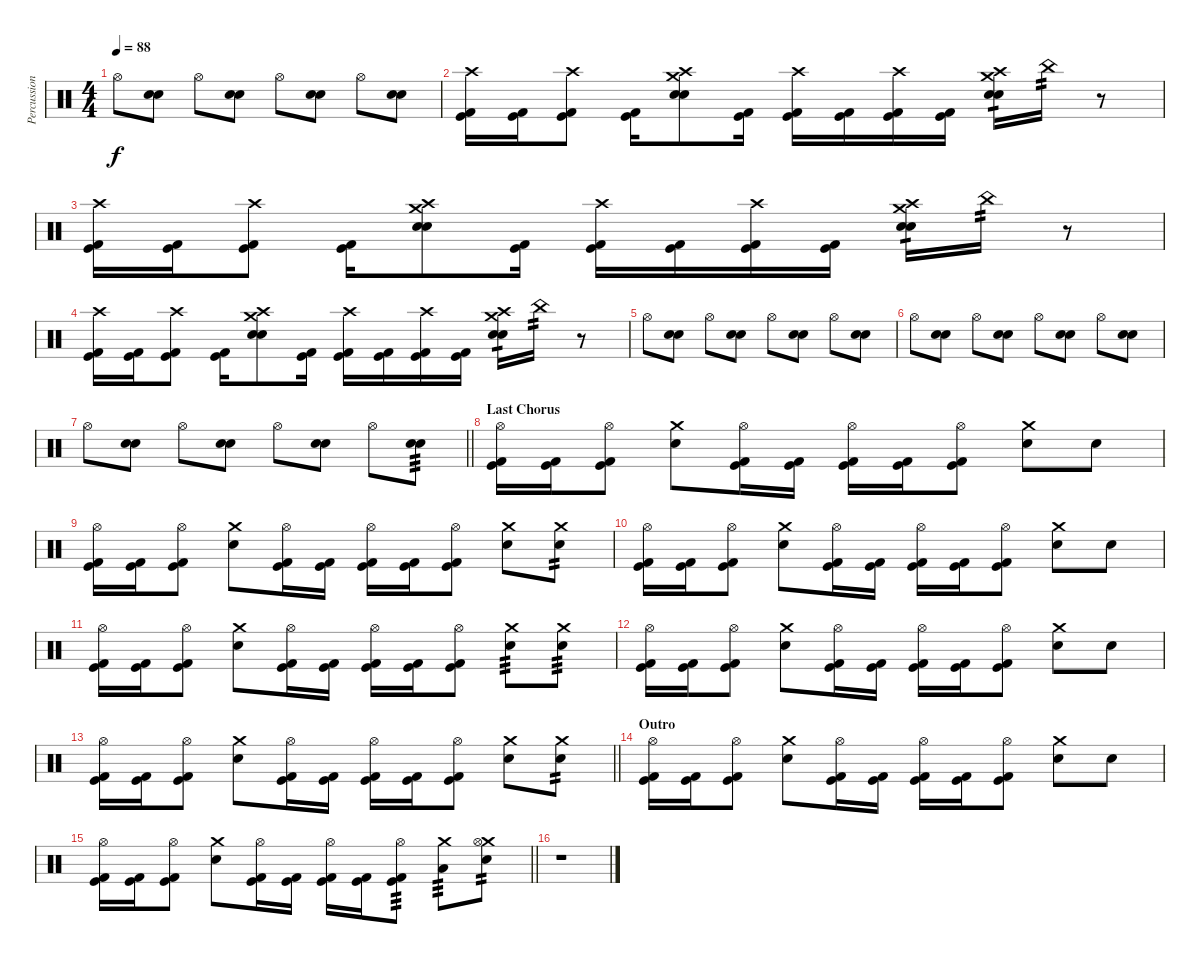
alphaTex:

\track ("Percussion" "Percussion") {instrument percussion}
\staff {score}
\articulation defaults
\ts (4 4)
\tempo 88
\clef neutral
\ks c "Hi-Hat (open)".8{dy f}
("Electric Snare (hit)" "Snare (hit) 2").8 "Hi-Hat (open)".8 ("Electric Snare (hit)" "Snare (hit) 2").8 "Hi-Hat (open)".8 ("Electric Snare (hit)" "Snare (hit) 2").8 "Hi-Hat (open)".8 ("Electric Snare (hit)" "Snare (hit) 2").8 |
("Kick (hit) 2" "Kick (hit)" "Crash high (hit)").16 ("Kick (hit) 2" "Kick (hit)").16 ("Kick (hit) 2" "Kick (hit)" "Crash high (hit)").8 ("Kick (hit) 2" "Kick (hit)").16 ("Electric Snare (hit)" "Crash medium (hit)" "Snare (hit) 2" "Crash high (hit)").8 ("Kick (hit) 2" "Kick (hit)").16 ("Kick (hit) 2" "Kick (hit)" "Crash high (hit)").16 ("Kick (hit) 2" "Kick (hit)").16 ("Kick (hit) 2" "Kick (hit)" "Crash high (hit)").16 ("Kick (hit) 2" "Kick (hit)").16 ("Electric Snare (hit)" "Crash medium (hit)" "Snare (hit) 2" "Crash high (hit)").16{tp 1} "China (hit)".16{tp 2} r.8 |
("Kick (hit) 2" "Kick (hit)" "Crash high (hit)").16 ("Kick (hit) 2" "Kick (hit)").16 ("Kick (hit) 2" "Kick (hit)" "Crash high (hit)").8 ("Kick (hit) 2" "Kick (hit)").16 ("Electric Snare (hit)" "Crash medium (hit)" "Snare (hit) 2" "Crash high (hit)").8 ("Kick (hit) 2" "Kick (hit)").16 ("Kick (hit) 2" "Kick (hit)" "Crash high (hit)").16 ("Kick (hit) 2" "Kick (hit)").16 ("Kick (hit) 2" "Kick (hit)" "Crash high (hit)").16 ("Kick (hit) 2" "Kick (hit)").16 ("Electric Snare (hit)" "Crash medium (hit)" "Snare (hit) 2" "Crash high (hit)").16{tp 1} "China (hit)".16{tp 2} r.8 |
("Kick (hit) 2" "Kick (hit)" "Crash high (hit)").16 ("Kick (hit) 2" "Kick (hit)").16 ("Kick (hit) 2" "Kick (hit)" "Crash high (hit)").8 ("Kick (hit) 2" "Kick (hit)").16 ("Electric Snare (hit)" "Crash medium (hit)" "Snare (hit) 2" "Crash high (hit)").8 ("Kick (hit) 2" "Kick (hit)").16 ("Kick (hit) 2" "Kick (hit)" "Crash high (hit)").16 ("Kick (hit) 2" "Kick (hit)").16 ("Kick (hit) 2" "Kick (hit)" "Crash high (hit)").16 ("Kick (hit) 2" "Kick (hit)").16 ("Electric Snare (hit)" "Crash medium (hit)" "Snare (hit) 2" "Crash high (hit)").16{tp 1} "China (hit)".16{tp 2} r.8 |
"Hi-Hat (open)".8 ("Electric Snare (hit)" "Snare (hit) 2").8 "Hi-Hat (open)".8 ("Electric Snare (hit)" "Snare (hit) 2").8 "Hi-Hat (open)".8 ("Electric Snare (hit)" "Snare (hit) 2").8 "Hi-Hat (open)".8 ("Electric Snare (hit)" "Snare (hit) 2").8 |
"Hi-Hat (open)".8 ("Electric Snare (hit)" "Snare (hit) 2").8 "Hi-Hat (open)".8 ("Electric Snare (hit)" "Snare (hit) 2").8 "Hi-Hat (open)".8 ("Electric Snare (hit)" "Snare (hit) 2").8 "Hi-Hat (open)".8 ("Electric Snare (hit)" "Snare (hit) 2").8 |
\barLineRight lightlight "Hi-Hat (open)".8
("Electric Snare (hit)" "Snare (hit) 2").8 "Hi-Hat (open)".8 ("Electric Snare (hit)" "Snare (hit) 2").8 "Hi-Hat (open)".8 ("Electric Snare (hit)" "Snare (hit) 2").8 "Hi-Hat (open)".8 ("Electric Snare (hit)" "Snare (hit) 2").8{tp 3} |
\section ("" "Last Chorus")
("Kick (hit) 2" "Kick (hit)" "Hi-Hat (open)").16 ("Kick (hit) 2" "Kick (hit)").16 ("Kick (hit) 2" "Kick (hit)" "Hi-Hat (open)").8 ("Electric Snare (hit)" "Crash medium (hit)").8 ("Kick (hit) 2" "Kick (hit)" "Hi-Hat (open)").16 ("Kick (hit) 2" "Kick (hit)").16 ("Kick (hit) 2" "Kick (hit)" "Hi-Hat (open)").16 ("Kick (hit) 2" "Kick (hit)").16 ("Kick (hit) 2" "Kick (hit)" "Hi-Hat (open)").8 ("Electric Snare (hit)" "Crash medium (hit)").8 "Electric Snare (hit)".8 |
("Kick (hit) 2" "Kick (hit)" "Hi-Hat (open)").16 ("Kick (hit) 2" "Kick (hit)").16 ("Kick (hit) 2" "Kick (hit)" "Hi-Hat (open)").8 ("Electric Snare (hit)" "Crash medium (hit)").8 ("Kick (hit) 2" "Kick (hit)" "Hi-Hat (open)").16 ("Kick (hit) 2" "Kick (hit)").16 ("Kick (hit) 2" "Kick (hit)" "Hi-Hat (open)").16 ("Kick (hit) 2" "Kick (hit)").16 ("Kick (hit) 2" "Kick (hit)" "Hi-Hat (open)").8 ("Electric Snare (hit)" "Crash medium (hit)").8 ("Electric Snare (hit)" "Crash medium (hit)").8{tp 2} |
("Kick (hit) 2" "Kick (hit)" "Hi-Hat (open)").16 ("Kick (hit) 2" "Kick (hit)").16 ("Kick (hit) 2" "Kick (hit)" "Hi-Hat (open)").8 ("Electric Snare (hit)" "Crash medium (hit)").8 ("Kick (hit) 2" "Kick (hit)" "Hi-Hat (open)").16 ("Kick (hit) 2" "Kick (hit)").16 ("Kick (hit) 2" "Kick (hit)" "Hi-Hat (open)").16 ("Kick (hit) 2" "Kick (hit)").16 ("Kick (hit) 2" "Kick (hit)" "Hi-Hat (open)").8 ("Electric Snare (hit)" "Crash medium (hit)").8 "Electric Snare (hit)".8 |
("Kick (hit) 2" "Kick (hit)" "Hi-Hat (open)").16 ("Kick (hit) 2" "Kick (hit)").16 ("Kick (hit) 2" "Kick (hit)" "Hi-Hat (open)").8 ("Electric Snare (hit)" "Crash medium (hit)").8 ("Kick (hit) 2" "Kick (hit)" "Hi-Hat (open)").16 ("Kick (hit) 2" "Kick (hit)").16 ("Kick (hit) 2" "Kick (hit)" "Hi-Hat (open)").16 ("Kick (hit) 2" "Kick (hit)").16 ("Kick (hit) 2" "Kick (hit)" "Hi-Hat (open)").8 ("Electric Snare (hit)" "Crash medium (hit)").8{tp 3} ("Electric Snare (hit)" "Crash medium (hit)").8{tp 3} |
("Kick (hit) 2" "Kick (hit)" "Hi-Hat (open)").16 ("Kick (hit) 2" "Kick (hit)").16 ("Kick (hit) 2" "Kick (hit)" "Hi-Hat (open)").8 ("Electric Snare (hit)" "Crash medium (hit)").8 ("Kick (hit) 2" "Kick (hit)" "Hi-Hat (open)").16 ("Kick (hit) 2" "Kick (hit)").16 ("Kick (hit) 2" "Kick (hit)" "Hi-Hat (open)").16 ("Kick (hit) 2" "Kick (hit)").16 ("Kick (hit) 2" "Kick (hit)" "Hi-Hat (open)").8 ("Electric Snare (hit)" "Crash medium (hit)").8 "Electric Snare (hit)".8 |
\barLineRight lightlight
("Kick (hit) 2" "Kick (hit)" "Hi-Hat (open)").16 ("Kick (hit) 2" "Kick (hit)").16 ("Kick (hit) 2" "Kick (hit)" "Hi-Hat (open)").8 ("Electric Snare (hit)" "Crash medium (hit)").8 ("Kick (hit) 2" "Kick (hit)" "Hi-Hat (open)").16 ("Kick (hit) 2" "Kick (hit)").16 ("Kick (hit) 2" "Kick (hit)" "Hi-Hat (open)").16 ("Kick (hit) 2" "Kick (hit)").16 ("Kick (hit) 2" "Kick (hit)" "Hi-Hat (open)").8 ("Electric Snare (hit)" "Crash medium (hit)").8 ("Electric Snare (hit)" "Crash medium (hit)").8{tp 2} |
\section ("" "Outro")
("Kick (hit) 2" "Kick (hit)" "Hi-Hat (open)").16 ("Kick (hit) 2" "Kick (hit)").16 ("Kick (hit) 2" "Kick (hit)" "Hi-Hat (open)").8 ("Electric Snare (hit)" "Crash medium (hit)").8 ("Kick (hit) 2" "Kick (hit)" "Hi-Hat (open)").16 ("Kick (hit) 2" "Kick (hit)").16 ("Kick (hit) 2" "Kick (hit)" "Hi-Hat (open)").16 ("Kick (hit) 2" "Kick (hit)").16 ("Kick (hit) 2" "Kick (hit)" "Hi-Hat (open)").8 ("Electric Snare (hit)" "Crash medium (hit)").8 "Electric Snare (hit)".8 |
\barLineRight lightlight
("Kick (hit) 2" "Kick (hit)" "Hi-Hat (open)").16 ("Kick (hit) 2" "Kick (hit)").16 ("Kick (hit) 2" "Kick (hit)" "Hi-Hat (open)").8 ("Electric Snare (hit)" "Crash medium (hit)").8 ("Kick (hit) 2" "Kick (hit)" "Hi-Hat (open)").16 ("Kick (hit) 2" "Kick (hit)").16 ("Kick (hit) 2" "Kick (hit)" "Hi-Hat (open)").16 ("Kick (hit) 2" "Kick (hit)").16 ("Kick (hit) 2" "Kick (hit)" "Hi-Hat (open)").8{tp 3} ("Low Tom (hit)" "Crash medium (hit)").8{tp 3} ("Electric Snare (hit)" "Crash medium (hit)" "Hi-Hat (open)").8{tp 2} |
r.1
